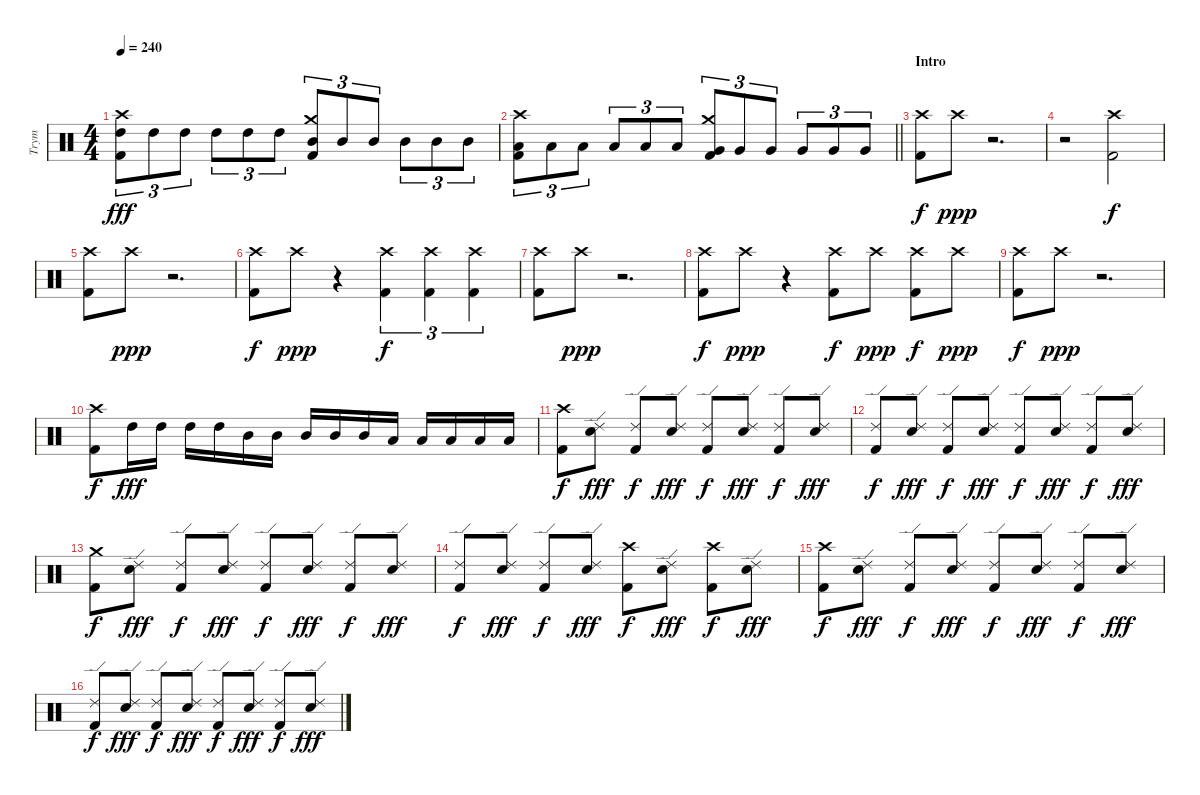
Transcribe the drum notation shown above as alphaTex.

\track ("Trym" "Trym") {instrument percussion}
\staff {score}
\articulation defaults
\ts (4 4)
\tempo 240
\clef neutral
\ks c
("Crash high (hit)" "High Tom (hit)" "Kick (hit) 2").8{tu (3 2) dy fff} "High Tom (hit)".8{tu (3 2)} "High Tom (hit)".8{tu (3 2)} "High Tom (hit)".8{tu (3 2)} "High Tom (hit)".8{tu (3 2)} "High Tom (hit)".8{tu (3 2)} ("Crash medium (hit)" "Mid Tom (hit)" "Kick (hit) 2").8{tu (3 2)} "Mid Tom (hit)".8{tu (3 2)} "Mid Tom (hit)".8{tu (3 2)} "Mid Tom (hit)".8{tu (3 2)} "Mid Tom (hit)".8{tu (3 2)} "Mid Tom (hit)".8{tu (3 2)} |
\barLineRight lightlight
("Crash high (hit)" "Low Tom (hit)" "Kick (hit) 2").8{tu (3 2)} "Low Tom (hit)".8{tu (3 2)} "Low Tom (hit)".8{tu (3 2)} "Low Tom (hit)".8{tu (3 2)} "Low Tom (hit)".8{tu (3 2)} "Low Tom (hit)".8{tu (3 2)} ("Crash medium (hit)" "Very Low Tom (hit)" "Kick (hit) 2").8{tu (3 2)} "Very Low Tom (hit)".8{tu (3 2)} "Very Low Tom (hit)".8{tu (3 2)} "Very Low Tom (hit)".8{tu (3 2)} "Very Low Tom (hit)".8{tu (3 2)} "Very Low Tom (hit)".8{tu (3 2)} |
\section ("" "Intro")
("Crash high (hit)" "Kick (hit) 2").8{dy f} "Crash high (hit)".8{dy ppp} r.2{d} |
r.2 ("Crash high (hit)" "Kick (hit) 2").2{dy f} |
("Crash high (hit)" "Kick (hit) 2").8 "Crash high (hit)".8{dy ppp} r.2{d} |
("Crash high (hit)" "Kick (hit) 2").8{dy f} "Crash high (hit)".8{dy ppp} r.4 ("Crash high (hit)" "Kick (hit) 2").4{tu (3 2) dy f} ("Crash high (hit)" "Kick (hit) 2").4{tu (3 2)} ("Crash high (hit)" "Kick (hit) 2").4{tu (3 2)} |
("Crash high (hit)" "Kick (hit) 2").8 "Crash high (hit)".8{dy ppp} r.2{d} |
("Crash high (hit)" "Kick (hit) 2").8{dy f} "Crash high (hit)".8{dy ppp} r.4 ("Crash high (hit)" "Kick (hit) 2").8{dy f} "Crash high (hit)".8{dy ppp} ("Crash high (hit)" "Kick (hit) 2").8{dy f} "Crash high (hit)".8{dy ppp} |
("Crash high (hit)" "Kick (hit) 2").8{dy f} "Crash high (hit)".8{dy ppp} r.2{d} |
("Crash high (hit)" "Kick (hit) 2").8{dy f} "High Tom (hit)".16{dy fff} "High Tom (hit)".16 "High Tom (hit)".16 "High Tom (hit)".16 "Mid Tom (hit)".16 "Mid Tom (hit)".16 "Mid Tom (hit)".16 "Mid Tom (hit)".16 "Mid Tom (hit)".16 "Low Tom (hit)".16 "Low Tom (hit)".16 "Low Tom (hit)".16 "Low Tom (hit)".16 "Low Tom (hit)".16 |
("Crash high (hit)" "Kick (hit) 2").8{dy f} ("Ride (edge) 2" "Electric Snare (hit)").8{dy fff} ("Ride (edge) 2" "Kick (hit) 2").8{dy f} ("Ride (edge) 2" "Electric Snare (hit)").8{dy fff} ("Ride (edge) 2" "Kick (hit) 2").8{dy f} ("Ride (edge) 2" "Electric Snare (hit)").8{dy fff} ("Ride (edge) 2" "Kick (hit) 2").8{dy f} ("Ride (edge) 2" "Electric Snare (hit)").8{dy fff} |
("Ride (edge) 2" "Kick (hit) 2").8{dy f} ("Ride (edge) 2" "Electric Snare (hit)").8{dy fff} ("Ride (edge) 2" "Kick (hit) 2").8{dy f} ("Ride (edge) 2" "Electric Snare (hit)").8{dy fff} ("Ride (edge) 2" "Kick (hit) 2").8{dy f} ("Ride (edge) 2" "Electric Snare (hit)").8{dy fff} ("Ride (edge) 2" "Kick (hit) 2").8{dy f} ("Ride (edge) 2" "Electric Snare (hit)").8{dy fff} |
("Crash medium (hit)" "Kick (hit) 2").8{dy f} ("Ride (edge) 2" "Electric Snare (hit)").8{dy fff} ("Ride (edge) 2" "Kick (hit) 2").8{dy f} ("Ride (edge) 2" "Electric Snare (hit)").8{dy fff} ("Ride (edge) 2" "Kick (hit) 2").8{dy f} ("Ride (edge) 2" "Electric Snare (hit)").8{dy fff} ("Ride (edge) 2" "Kick (hit) 2").8{dy f} ("Ride (edge) 2" "Electric Snare (hit)").8{dy fff} |
("Ride (edge) 2" "Kick (hit) 2").8{dy f} ("Ride (edge) 2" "Electric Snare (hit)").8{dy fff} ("Ride (edge) 2" "Kick (hit) 2").8{dy f} ("Ride (edge) 2" "Electric Snare (hit)").8{dy fff} ("Crash high (hit)" "Kick (hit) 2").8{dy f} ("Ride (edge) 2" "Electric Snare (hit)").8{dy fff} ("Crash high (hit)" "Kick (hit) 2").8{dy f} ("Ride (edge) 2" "Electric Snare (hit)").8{dy fff} |
("Crash high (hit)" "Kick (hit) 2").8{dy f} ("Ride (edge) 2" "Electric Snare (hit)").8{dy fff} ("Ride (edge) 2" "Kick (hit) 2").8{dy f} ("Ride (edge) 2" "Electric Snare (hit)").8{dy fff} ("Ride (edge) 2" "Kick (hit) 2").8{dy f} ("Ride (edge) 2" "Electric Snare (hit)").8{dy fff} ("Ride (edge) 2" "Kick (hit) 2").8{dy f} ("Ride (edge) 2" "Electric Snare (hit)").8{dy fff} |
("Ride (edge) 2" "Kick (hit) 2").8{dy f} ("Ride (edge) 2" "Electric Snare (hit)").8{dy fff} ("Ride (edge) 2" "Kick (hit) 2").8{dy f} ("Ride (edge) 2" "Electric Snare (hit)").8{dy fff} ("Ride (edge) 2" "Kick (hit) 2").8{dy f} ("Ride (edge) 2" "Electric Snare (hit)").8{dy fff} ("Ride (edge) 2" "Kick (hit) 2").8{dy f} ("Ride (edge) 2" "Electric Snare (hit)").8{dy fff}
